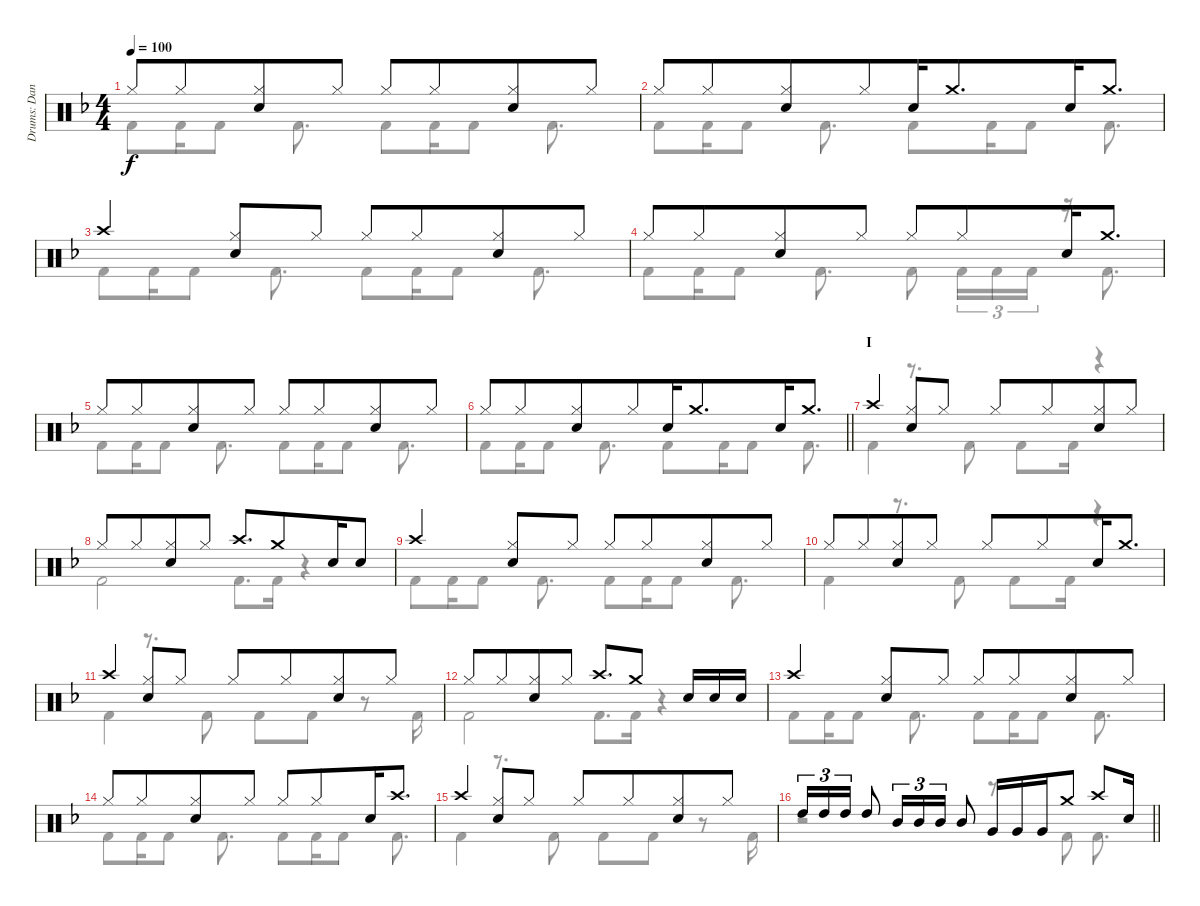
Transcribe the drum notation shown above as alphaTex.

\track ("Drums: Dana" "Drums: Dan") {instrument percussion}
\staff {score}
\articulation defaults
\voice
\ts (4 4)
\tempo 100
\clef neutral
\ks f "Hi-Hat (closed)".8{dy f} "Hi-Hat (closed)".8{beam merge}
("Hi-Hat (closed)" "Snare (hit) 2").8 "Hi-Hat (closed)".8 "Hi-Hat (closed)".8 "Hi-Hat (closed)".8{beam merge} ("Hi-Hat (closed)" "Snare (hit) 2").8 "Hi-Hat (closed)".8 |
"Hi-Hat (closed)".8 "Hi-Hat (closed)".8{beam merge} ("Hi-Hat (closed)" "Snare (hit) 2").8 "Hi-Hat (closed)".8{beam merge} "Snare (hit) 2".16 "Crash medium (hit)".8{d beam merge} "Snare (hit) 2".16 "Crash medium (hit)".8{d} |
"Crash high (hit)".4{beam merge} ("Hi-Hat (closed)" "Snare (hit) 2").8 "Hi-Hat (closed)".8 "Hi-Hat (closed)".8 "Hi-Hat (closed)".8{beam merge} ("Hi-Hat (closed)" "Snare (hit) 2").8 "Hi-Hat (closed)".8 |
"Hi-Hat (closed)".8 "Hi-Hat (closed)".8{beam merge} ("Hi-Hat (closed)" "Snare (hit) 2").8 "Hi-Hat (closed)".8 "Hi-Hat (closed)".8 "Hi-Hat (closed)".8{beam merge} "Snare (hit) 2".16 "Crash medium (hit)".8{d} |
"Hi-Hat (closed)".8 "Hi-Hat (closed)".8{beam merge} ("Hi-Hat (closed)" "Snare (hit) 2").8 "Hi-Hat (closed)".8 "Hi-Hat (closed)".8 "Hi-Hat (closed)".8{beam merge} ("Hi-Hat (closed)" "Snare (hit) 2").8 "Hi-Hat (closed)".8 |
\barLineRight lightlight "Hi-Hat (closed)".8 "Hi-Hat (closed)".8{beam merge}
("Hi-Hat (closed)" "Snare (hit) 2").8 "Hi-Hat (closed)".8{beam merge} "Snare (hit) 2".16 "Crash medium (hit)".8{d beam merge} "Snare (hit) 2".16 "Crash medium (hit)".8{d} |
\section ("" "I")
"Crash high (hit)".4{beam merge} ("Hi-Hat (closed)" "Snare (hit) 2").8 "Hi-Hat (closed)".8 "Hi-Hat (closed)".8 "Hi-Hat (closed)".8{beam merge} ("Hi-Hat (closed)" "Snare (hit) 2").8 "Hi-Hat (closed)".8 |
"Hi-Hat (closed)".8 "Hi-Hat (closed)".8{beam merge} ("Hi-Hat (closed)" "Snare (hit) 2").8 "Hi-Hat (closed)".8 "Crash high (hit)".8{d} "Crash medium (hit)".8{beam merge} "Snare (hit) 2".16 "Snare (hit) 2".8 |
"Crash high (hit)".4{beam merge} ("Hi-Hat (closed)" "Snare (hit) 2").8 "Hi-Hat (closed)".8 "Hi-Hat (closed)".8 "Hi-Hat (closed)".8{beam merge} ("Hi-Hat (closed)" "Snare (hit) 2").8 "Hi-Hat (closed)".8 |
"Hi-Hat (closed)".8 "Hi-Hat (closed)".8{beam merge} ("Hi-Hat (closed)" "Snare (hit) 2").8 "Hi-Hat (closed)".8 "Hi-Hat (closed)".8 "Hi-Hat (closed)".8{beam merge} "Snare (hit) 2".16 "Crash medium (hit)".8{d} |
"Crash high (hit)".4{beam merge} ("Hi-Hat (closed)" "Snare (hit) 2").8 "Hi-Hat (closed)".8 "Hi-Hat (closed)".8 "Hi-Hat (closed)".8{beam merge} ("Hi-Hat (closed)" "Snare (hit) 2").8 "Hi-Hat (closed)".8 |
"Hi-Hat (closed)".8 "Hi-Hat (closed)".8{beam merge} ("Hi-Hat (closed)" "Snare (hit) 2").8 "Hi-Hat (closed)".8 "Crash high (hit)".8{d} "Crash medium (hit)".8 "Snare (hit) 2".16 "Snare (hit) 2".16 "Snare (hit) 2".16 |
"Crash high (hit)".4{beam merge} ("Hi-Hat (closed)" "Snare (hit) 2").8 "Hi-Hat (closed)".8 "Hi-Hat (closed)".8 "Hi-Hat (closed)".8{beam merge} ("Hi-Hat (closed)" "Snare (hit) 2").8 "Hi-Hat (closed)".8 |
"Hi-Hat (closed)".8 "Hi-Hat (closed)".8{beam merge} ("Hi-Hat (closed)" "Snare (hit) 2").8 "Hi-Hat (closed)".8 "Hi-Hat (closed)".8 "Hi-Hat (closed)".8{beam merge} "Snare (hit) 2".16 "Crash high (hit)".8{d} |
"Crash high (hit)".4{beam merge} ("Hi-Hat (closed)" "Snare (hit) 2").8 "Hi-Hat (closed)".8 "Hi-Hat (closed)".8 "Hi-Hat (closed)".8{beam merge} ("Hi-Hat (closed)" "Snare (hit) 2").8 "Hi-Hat (closed)".8 |
\barLineRight lightlight "High Tom (hit)".16{tu (3 2)} "High Tom (hit)".16{tu (3 2) beam merge} "High Tom (hit)".16{tu (3 2)} "High Tom (hit)".8 "Mid Tom (hit)".16{tu (3 2)} "Mid Tom (hit)".16{tu (3 2) beam merge} "Mid Tom (hit)".16{tu (3 2)} "Mid Tom (hit)".8 "Very Low Tom (hit)".16 "Very Low Tom (hit)".16{beam merge} "Very Low Tom (hit)".16 "Crash medium (hit)".8 "Crash high (hit)".8 "Snare (hit) 2".16
\voice
\clef neutral
\ottava regular
\simile none
\ks f "Kick (hit) 2".8{dy f} "Kick (hit) 2".16 "Kick (hit) 2".8 "Kick (hit) 2".8{d} "Kick (hit) 2".8 "Kick (hit) 2".16 "Kick (hit) 2".8 "Kick (hit) 2".8{d}
|
"Kick (hit) 2".8 "Kick (hit) 2".16 "Kick (hit) 2".8 "Kick (hit) 2".8{d} "Kick (hit) 2".8 "Kick (hit) 2".16 "Kick (hit) 2".8 "Kick (hit) 2".8{d} |
"Kick (hit) 2".8 "Kick (hit) 2".16 "Kick (hit) 2".8 "Kick (hit) 2".8{d} "Kick (hit) 2".8 "Kick (hit) 2".16 "Kick (hit) 2".8 "Kick (hit) 2".8{d} |
"Kick (hit) 2".8 "Kick (hit) 2".16 "Kick (hit) 2".8 "Kick (hit) 2".8{d} "Kick (hit) 2".8 "Kick (hit) 2".16{tu (3 2)} "Kick (hit) 2".16{tu (3 2)} "Kick (hit) 2".16{tu (3 2)} r.16 "Kick (hit) 2".8{d} |
"Kick (hit) 2".8 "Kick (hit) 2".16 "Kick (hit) 2".8 "Kick (hit) 2".8{d} "Kick (hit) 2".8 "Kick (hit) 2".16 "Kick (hit) 2".8 "Kick (hit) 2".8{d} |
\barLineRight lightlight "Kick (hit) 2".8 "Kick (hit) 2".16 "Kick (hit) 2".8 "Kick (hit) 2".8{d} "Kick (hit) 2".8 "Kick (hit) 2".16 "Kick (hit) 2".8 "Kick (hit) 2".8{d}
|
"Kick (hit) 2".4 r.8{d} "Kick (hit) 2".8 "Kick (hit) 2".8 "Kick (hit) 2".16 r.4 |
"Kick (hit) 2".2 "Kick (hit) 2".8{d} "Kick (hit) 2".16 r.4 |
"Kick (hit) 2".8 "Kick (hit) 2".16 "Kick (hit) 2".8 "Kick (hit) 2".8{d} "Kick (hit) 2".8 "Kick (hit) 2".16 "Kick (hit) 2".8 "Kick (hit) 2".8{d} |
"Kick (hit) 2".4 r.8{d} "Kick (hit) 2".8 "Kick (hit) 2".8 "Kick (hit) 2".16 r.4 |
"Kick (hit) 2".4 r.8{d} "Kick (hit) 2".8 "Kick (hit) 2".8 "Kick (hit) 2".8 r.8 "Kick (hit) 2".16 |
"Kick (hit) 2".2 "Kick (hit) 2".8{d} "Kick (hit) 2".16 r.4 |
"Kick (hit) 2".8 "Kick (hit) 2".16 "Kick (hit) 2".8 "Kick (hit) 2".8{d} "Kick (hit) 2".8 "Kick (hit) 2".16 "Kick (hit) 2".8 "Kick (hit) 2".8{d} |
"Kick (hit) 2".8 "Kick (hit) 2".16 "Kick (hit) 2".8 "Kick (hit) 2".8{d} "Kick (hit) 2".8 "Kick (hit) 2".16 "Kick (hit) 2".8 "Kick (hit) 2".8{d} |
"Kick (hit) 2".4 r.8{d} "Kick (hit) 2".8 "Kick (hit) 2".8 "Kick (hit) 2".8 r.8 "Kick (hit) 2".16 |
\barLineRight lightlight
r.2 r.8{d} "Kick (hit) 2".8 "Kick (hit) 2".8{d}
